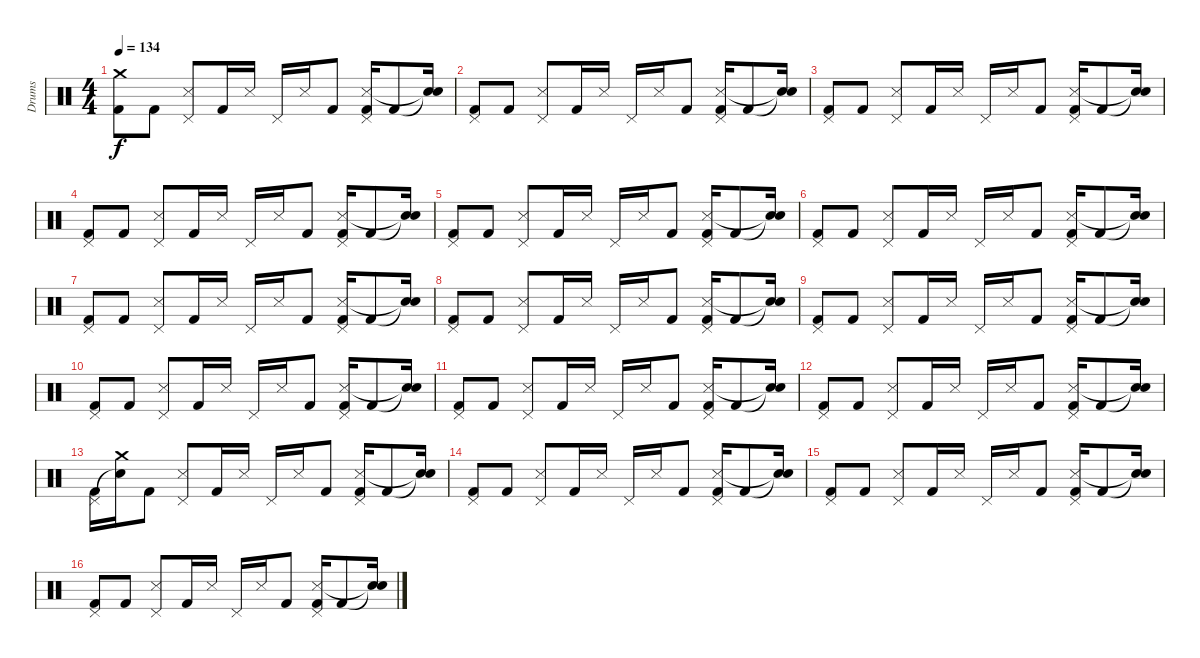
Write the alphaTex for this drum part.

\track ("Drums" "Drums") {instrument percussion}
\staff {score}
\articulation defaults
\ts (4 4)
\tempo 134
\clef neutral
\ks c
("Crash medium (hit)" "Kick (hit) 2").8{dy f} "Kick (hit) 2".8 ("Snare (side stick) 3" "Pedal Hi-Hat (hit)").8 "Kick (hit) 2".16 "Snare (side stick) 3".16 "Pedal Hi-Hat (hit)".16 "Snare (side stick) 3".16 "Kick (hit) 2".8 ("Pedal Hi-Hat (hit)" "Snare (side stick) 3" "Kick (hit) 2").16 "Kick (hit) 2".8 ("Snare (hit)"{t} "Snare (hit)"{t}).16 |
("Pedal Hi-Hat (hit)" "Kick (hit) 2").8 "Kick (hit) 2".8 ("Snare (side stick) 3" "Pedal Hi-Hat (hit)").8 "Kick (hit) 2".16 "Snare (side stick) 3".16 "Pedal Hi-Hat (hit)".16 "Snare (side stick) 3".16 "Kick (hit) 2".8 ("Pedal Hi-Hat (hit)" "Snare (side stick) 3" "Kick (hit) 2").16 "Kick (hit) 2".8 ("Snare (hit)"{t} "Snare (hit)"{t}).16 |
("Pedal Hi-Hat (hit)" "Kick (hit) 2").8 "Kick (hit) 2".8 ("Snare (side stick) 3" "Pedal Hi-Hat (hit)").8 "Kick (hit) 2".16 "Snare (side stick) 3".16 "Pedal Hi-Hat (hit)".16 "Snare (side stick) 3".16 "Kick (hit) 2".8 ("Pedal Hi-Hat (hit)" "Snare (side stick) 3" "Kick (hit) 2").16 "Kick (hit) 2".8 ("Snare (hit)"{t} "Snare (hit)"{t}).16 |
("Pedal Hi-Hat (hit)" "Kick (hit) 2").8 "Kick (hit) 2".8 ("Snare (side stick) 3" "Pedal Hi-Hat (hit)").8 "Kick (hit) 2".16 "Snare (side stick) 3".16 "Pedal Hi-Hat (hit)".16 "Snare (side stick) 3".16 "Kick (hit) 2".8 ("Pedal Hi-Hat (hit)" "Snare (side stick) 3" "Kick (hit) 2").16 "Kick (hit) 2".8 ("Snare (hit)"{t} "Snare (hit)"{t}).16 |
("Pedal Hi-Hat (hit)" "Kick (hit) 2").8 "Kick (hit) 2".8 ("Snare (side stick) 3" "Pedal Hi-Hat (hit)").8 "Kick (hit) 2".16 "Snare (side stick) 3".16 "Pedal Hi-Hat (hit)".16 "Snare (side stick) 3".16 "Kick (hit) 2".8 ("Pedal Hi-Hat (hit)" "Snare (side stick) 3" "Kick (hit) 2").16 "Kick (hit) 2".8 ("Snare (hit)"{t} "Snare (hit)"{t}).16 |
("Pedal Hi-Hat (hit)" "Kick (hit) 2").8 "Kick (hit) 2".8 ("Snare (side stick) 3" "Pedal Hi-Hat (hit)").8 "Kick (hit) 2".16 "Snare (side stick) 3".16 "Pedal Hi-Hat (hit)".16 "Snare (side stick) 3".16 "Kick (hit) 2".8 ("Pedal Hi-Hat (hit)" "Snare (side stick) 3" "Kick (hit) 2").16 "Kick (hit) 2".8 ("Snare (hit)"{t} "Snare (hit)"{t}).16 |
("Pedal Hi-Hat (hit)" "Kick (hit) 2").8 "Kick (hit) 2".8 ("Snare (side stick) 3" "Pedal Hi-Hat (hit)").8 "Kick (hit) 2".16 "Snare (side stick) 3".16 "Pedal Hi-Hat (hit)".16 "Snare (side stick) 3".16 "Kick (hit) 2".8 ("Pedal Hi-Hat (hit)" "Snare (side stick) 3" "Kick (hit) 2").16 "Kick (hit) 2".8 ("Snare (hit)"{t} "Snare (hit)"{t}).16 |
("Pedal Hi-Hat (hit)" "Kick (hit) 2").8 "Kick (hit) 2".8 ("Snare (side stick) 3" "Pedal Hi-Hat (hit)").8 "Kick (hit) 2".16 "Snare (side stick) 3".16 "Pedal Hi-Hat (hit)".16 "Snare (side stick) 3".16 "Kick (hit) 2".8 ("Pedal Hi-Hat (hit)" "Snare (side stick) 3" "Kick (hit) 2").16 "Kick (hit) 2".8 ("Snare (hit)"{t} "Snare (hit)"{t}).16 |
("Pedal Hi-Hat (hit)" "Kick (hit) 2").8 "Kick (hit) 2".8 ("Snare (side stick) 3" "Pedal Hi-Hat (hit)").8 "Kick (hit) 2".16 "Snare (side stick) 3".16 "Pedal Hi-Hat (hit)".16 "Snare (side stick) 3".16 "Kick (hit) 2".8 ("Pedal Hi-Hat (hit)" "Snare (side stick) 3" "Kick (hit) 2").16 "Kick (hit) 2".8 ("Snare (hit)"{t} "Snare (hit)"{t}).16 |
("Pedal Hi-Hat (hit)" "Kick (hit) 2").8 "Kick (hit) 2".8 ("Snare (side stick) 3" "Pedal Hi-Hat (hit)").8 "Kick (hit) 2".16 "Snare (side stick) 3".16 "Pedal Hi-Hat (hit)".16 "Snare (side stick) 3".16 "Kick (hit) 2".8 ("Pedal Hi-Hat (hit)" "Snare (side stick) 3" "Kick (hit) 2").16 "Kick (hit) 2".8 ("Snare (hit)"{t} "Snare (hit)"{t}).16 |
("Pedal Hi-Hat (hit)" "Kick (hit) 2").8 "Kick (hit) 2".8 ("Snare (side stick) 3" "Pedal Hi-Hat (hit)").8 "Kick (hit) 2".16 "Snare (side stick) 3".16 "Pedal Hi-Hat (hit)".16 "Snare (side stick) 3".16 "Kick (hit) 2".8 ("Pedal Hi-Hat (hit)" "Snare (side stick) 3" "Kick (hit) 2").16 "Kick (hit) 2".8 ("Snare (hit)"{t} "Snare (hit)"{t}).16 |
("Pedal Hi-Hat (hit)" "Kick (hit) 2").8 "Kick (hit) 2".8 ("Snare (side stick) 3" "Pedal Hi-Hat (hit)").8 "Kick (hit) 2".16 "Snare (side stick) 3".16 "Pedal Hi-Hat (hit)".16 "Snare (side stick) 3".16 "Kick (hit) 2".8 ("Pedal Hi-Hat (hit)" "Snare (side stick) 3" "Kick (hit) 2").16 "Kick (hit) 2".8 ("Snare (hit)"{t} "Snare (hit)"{t}).16 |
("Pedal Hi-Hat (hit)" "Kick (hit) 2").16 ("Snare (hit)"{t} "Crash medium (hit)").16 "Kick (hit) 2".8 ("Snare (side stick) 3" "Pedal Hi-Hat (hit)").8 "Kick (hit) 2".16 "Snare (side stick) 3".16 "Pedal Hi-Hat (hit)".16 "Snare (side stick) 3".16 "Kick (hit) 2".8 ("Pedal Hi-Hat (hit)" "Snare (side stick) 3" "Kick (hit) 2").16 "Kick (hit) 2".8 ("Snare (hit)"{t} "Snare (hit)"{t}).16 |
("Pedal Hi-Hat (hit)" "Kick (hit) 2").8 "Kick (hit) 2".8 ("Snare (side stick) 3" "Pedal Hi-Hat (hit)").8 "Kick (hit) 2".16 "Snare (side stick) 3".16 "Pedal Hi-Hat (hit)".16 "Snare (side stick) 3".16 "Kick (hit) 2".8 ("Pedal Hi-Hat (hit)" "Snare (side stick) 3" "Kick (hit) 2").16 "Kick (hit) 2".8 ("Snare (hit)"{t} "Snare (hit)"{t}).16 |
("Pedal Hi-Hat (hit)" "Kick (hit) 2").8 "Kick (hit) 2".8 ("Snare (side stick) 3" "Pedal Hi-Hat (hit)").8 "Kick (hit) 2".16 "Snare (side stick) 3".16 "Pedal Hi-Hat (hit)".16 "Snare (side stick) 3".16 "Kick (hit) 2".8 ("Pedal Hi-Hat (hit)" "Snare (side stick) 3" "Kick (hit) 2").16 "Kick (hit) 2".8 ("Snare (hit)"{t} "Snare (hit)"{t}).16 |
("Pedal Hi-Hat (hit)" "Kick (hit) 2").8 "Kick (hit) 2".8 ("Snare (side stick) 3" "Pedal Hi-Hat (hit)").8 "Kick (hit) 2".16 "Snare (side stick) 3".16 "Pedal Hi-Hat (hit)".16 "Snare (side stick) 3".16 "Kick (hit) 2".8 ("Pedal Hi-Hat (hit)" "Snare (side stick) 3" "Kick (hit) 2").16 "Kick (hit) 2".8 ("Snare (hit)"{t} "Snare (hit)"{t}).16
